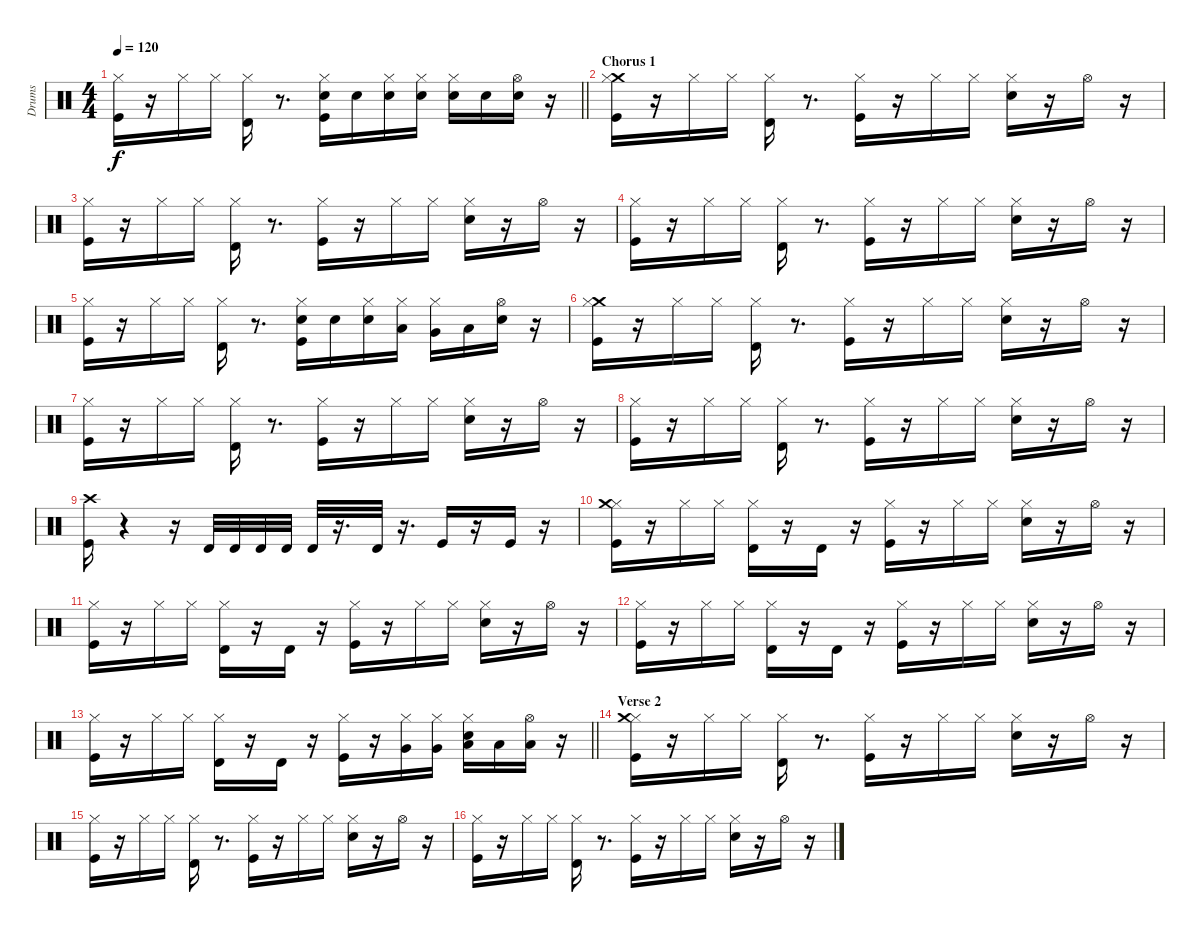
\track ("Drums" "Drums") {instrument percussion}
\staff {score}
\articulation defaults
\ts (4 4)
\tempo 120
\clef neutral
\barLineRight lightlight
\ks c
("Hi-Hat (closed)" "Kick (hit)").16{dy f} r.16 "Hi-Hat (closed)".16 "Hi-Hat (closed)".16 ("Hi-Hat (closed)" "Timbale high (hit)").16 r.8{d} ("Electric Snare (hit)" "Hi-Hat (closed)" "Kick (hit)").16 "Electric Snare (hit)".16 ("Electric Snare (hit)" "Hi-Hat (closed)").16 ("Electric Snare (hit)" "Hi-Hat (closed)").16 ("Hi-Hat (closed)" "Electric Snare (hit)").16 "Electric Snare (hit)".16 ("Electric Snare (hit)" "Hi-Hat (open)").16 r.16 |
\section ("" "Chorus 1")
("Crash medium (hit)" "Hi-Hat (closed)" "Kick (hit)").16 r.16 "Hi-Hat (closed)".16 "Hi-Hat (closed)".16 ("Hi-Hat (closed)" "Timbale high (hit)").16 r.8{d} ("Hi-Hat (closed)" "Kick (hit)").16 r.16 "Hi-Hat (closed)".16 "Hi-Hat (closed)".16 ("Hi-Hat (closed)" "Snare (hit) 2").16 r.16 "Hi-Hat (open)".16 r.16 |
("Hi-Hat (closed)" "Kick (hit)").16 r.16 "Hi-Hat (closed)".16 "Hi-Hat (closed)".16 ("Hi-Hat (closed)" "Timbale high (hit)").16 r.8{d} ("Hi-Hat (closed)" "Kick (hit)").16 r.16 "Hi-Hat (closed)".16 "Hi-Hat (closed)".16 ("Hi-Hat (closed)" "Snare (hit) 2").16 r.16 "Hi-Hat (open)".16 r.16 |
("Hi-Hat (closed)" "Kick (hit)").16 r.16 "Hi-Hat (closed)".16 "Hi-Hat (closed)".16 ("Hi-Hat (closed)" "Timbale high (hit)").16 r.8{d} ("Hi-Hat (closed)" "Kick (hit)").16 r.16 "Hi-Hat (closed)".16 "Hi-Hat (closed)".16 ("Hi-Hat (closed)" "Snare (hit) 2").16 r.16 "Hi-Hat (open)".16 r.16 |
("Hi-Hat (closed)" "Kick (hit)").16 r.16 "Hi-Hat (closed)".16 "Hi-Hat (closed)".16 ("Hi-Hat (closed)" "Timbale high (hit)").16 r.8{d} ("Electric Snare (hit)" "Hi-Hat (closed)" "Kick (hit)").16 "Electric Snare (hit)".16 ("Electric Snare (hit)" "Hi-Hat (closed)").16 ("Low Floor Tom (hit)" "Hi-Hat (closed)").16 ("Hi-Hat (closed)" "Very Low Tom (hit)").16 "Low Tom (hit)".16 ("Electric Snare (hit)" "Hi-Hat (open)").16 r.16 |
("Crash medium (hit)" "Hi-Hat (closed)" "Kick (hit)").16 r.16 "Hi-Hat (closed)".16 "Hi-Hat (closed)".16 ("Hi-Hat (closed)" "Timbale high (hit)").16 r.8{d} ("Hi-Hat (closed)" "Kick (hit)").16 r.16 "Hi-Hat (closed)".16 "Hi-Hat (closed)".16 ("Hi-Hat (closed)" "Snare (hit) 2").16 r.16 "Hi-Hat (open)".16 r.16 |
("Hi-Hat (closed)" "Kick (hit)").16 r.16 "Hi-Hat (closed)".16 "Hi-Hat (closed)".16 ("Hi-Hat (closed)" "Timbale high (hit)").16 r.8{d} ("Hi-Hat (closed)" "Kick (hit)").16 r.16 "Hi-Hat (closed)".16 "Hi-Hat (closed)".16 ("Hi-Hat (closed)" "Snare (hit) 2").16 r.16 "Hi-Hat (open)".16 r.16 |
("Hi-Hat (closed)" "Kick (hit)").16 r.16 "Hi-Hat (closed)".16 "Hi-Hat (closed)".16 ("Hi-Hat (closed)" "Timbale high (hit)").16 r.8{d} ("Hi-Hat (closed)" "Kick (hit)").16 r.16 "Hi-Hat (closed)".16 "Hi-Hat (closed)".16 ("Hi-Hat (closed)" "Snare (hit) 2").16 r.16 "Hi-Hat (open)".16 r.16 |
("Crash high (hit)" "Kick (hit)").16 r.4 r.16 "Timbale high (hit)".32 "Timbale high (hit)".32 "Timbale high (hit)".32 "Timbale high (hit)".32 "Timbale high (hit)".32 r.16{d} "Timbale high (hit)".32 r.16{d} "Kick (hit)".16 r.16 "Kick (hit)".16 r.16 |
("Hi-Hat (closed)" "Kick (hit)" "Crash medium (hit)").16 r.16 "Hi-Hat (closed)".16 "Hi-Hat (closed)".16 ("Hi-Hat (closed)" "Timbale high (hit)").16 r.16 "Timbale high (hit)".16 r.16 ("Hi-Hat (closed)" "Kick (hit)").16 r.16 "Hi-Hat (closed)".16 "Hi-Hat (closed)".16 ("Hi-Hat (closed)" "Snare (hit) 2").16 r.16 "Hi-Hat (open)".16 r.16 |
("Hi-Hat (closed)" "Kick (hit)").16 r.16 "Hi-Hat (closed)".16 "Hi-Hat (closed)".16 ("Hi-Hat (closed)" "Timbale high (hit)").16 r.16 "Timbale high (hit)".16 r.16 ("Hi-Hat (closed)" "Kick (hit)").16 r.16 "Hi-Hat (closed)".16 "Hi-Hat (closed)".16 ("Hi-Hat (closed)" "Snare (hit) 2").16 r.16 "Hi-Hat (open)".16 r.16 |
("Hi-Hat (closed)" "Kick (hit)").16 r.16 "Hi-Hat (closed)".16 "Hi-Hat (closed)".16 ("Hi-Hat (closed)" "Timbale high (hit)").16 r.16 "Timbale high (hit)".16 r.16 ("Hi-Hat (closed)" "Kick (hit)").16 r.16 "Hi-Hat (closed)".16 "Hi-Hat (closed)".16 ("Hi-Hat (closed)" "Snare (hit) 2").16 r.16 "Hi-Hat (open)".16 r.16 |
\barLineRight lightlight
("Hi-Hat (closed)" "Kick (hit)").16 r.16 "Hi-Hat (closed)".16 "Hi-Hat (closed)".16 ("Hi-Hat (closed)" "Timbale high (hit)").16 r.16 "Timbale high (hit)".16 r.16 ("Hi-Hat (closed)" "Kick (hit)").16 r.16 ("Very Low Tom (hit)" "Hi-Hat (closed)").16 ("Very Low Tom (hit)" "Hi-Hat (closed)").16 ("Low Floor Tom (hit)" "Hi-Hat (closed)" "Snare (hit) 2").16 "Low Floor Tom (hit)".16 ("Low Floor Tom (hit)" "Hi-Hat (open)").16 r.16 |
\section ("" "Verse 2")
("Hi-Hat (closed)" "Kick (hit)" "Crash medium (hit)").16 r.16 "Hi-Hat (closed)".16 "Hi-Hat (closed)".16 ("Hi-Hat (closed)" "Timbale high (hit)").16 r.8{d} ("Hi-Hat (closed)" "Kick (hit)").16 r.16 "Hi-Hat (closed)".16 "Hi-Hat (closed)".16 ("Hi-Hat (closed)" "Snare (hit) 2").16 r.16 "Hi-Hat (open)".16 r.16 |
("Hi-Hat (closed)" "Kick (hit)").16 r.16 "Hi-Hat (closed)".16 "Hi-Hat (closed)".16 ("Hi-Hat (closed)" "Timbale high (hit)").16 r.8{d} ("Hi-Hat (closed)" "Kick (hit)").16 r.16 "Hi-Hat (closed)".16 "Hi-Hat (closed)".16 ("Hi-Hat (closed)" "Snare (hit) 2").16 r.16 "Hi-Hat (open)".16 r.16 |
("Hi-Hat (closed)" "Kick (hit)").16 r.16 "Hi-Hat (closed)".16 "Hi-Hat (closed)".16 ("Hi-Hat (closed)" "Timbale high (hit)").16 r.8{d} ("Hi-Hat (closed)" "Kick (hit)").16 r.16 "Hi-Hat (closed)".16 "Hi-Hat (closed)".16 ("Hi-Hat (closed)" "Snare (hit) 2").16 r.16 "Hi-Hat (open)".16 r.16
